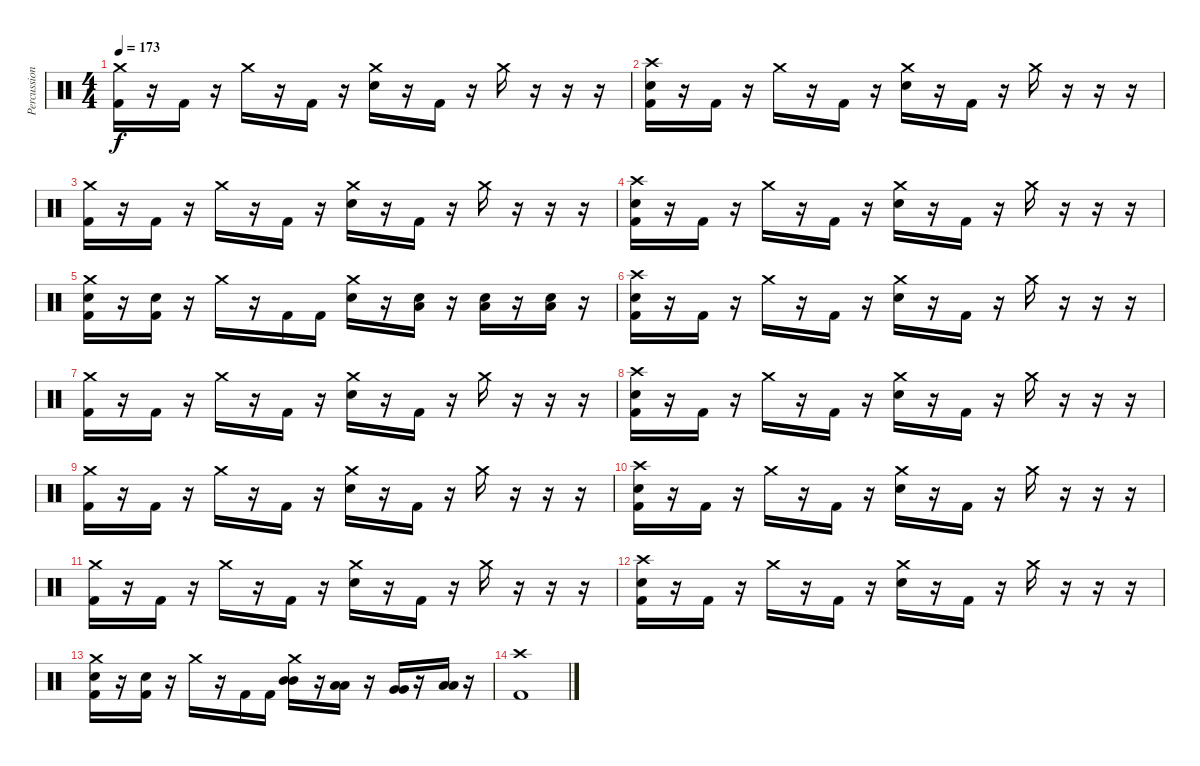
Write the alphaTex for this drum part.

\track ("Percussion" "Percussion") {instrument percussion}
\staff {score}
\articulation defaults
\ts (4 4)
\tempo 173
\clef neutral
\ks c
("Crash medium (hit)" "Kick (hit) 2").16{dy f} r.16 "Kick (hit) 2".16 r.16 "Crash medium (hit)".16 r.16 "Kick (hit) 2".16 r.16 ("Crash medium (hit)" "Electric Snare (hit)").16 r.16 "Kick (hit) 2".16 r.16 "Crash medium (hit)".16 r.16 r.16 r.16 |
("Crash high (hit)" "Electric Snare (hit)" "Kick (hit) 2").16 r.16 "Kick (hit) 2".16 r.16 "Crash medium (hit)".16 r.16 "Kick (hit) 2".16 r.16 ("Crash medium (hit)" "Electric Snare (hit)").16 r.16 "Kick (hit) 2".16 r.16 "Crash medium (hit)".16 r.16 r.16 r.16 |
("Crash medium (hit)" "Kick (hit) 2").16 r.16 "Kick (hit) 2".16 r.16 "Crash medium (hit)".16 r.16 "Kick (hit) 2".16 r.16 ("Crash medium (hit)" "Electric Snare (hit)").16 r.16 "Kick (hit) 2".16 r.16 "Crash medium (hit)".16 r.16 r.16 r.16 |
("Crash high (hit)" "Electric Snare (hit)" "Kick (hit) 2").16 r.16 "Kick (hit) 2".16 r.16 "Crash medium (hit)".16 r.16 "Kick (hit) 2".16 r.16 ("Crash medium (hit)" "Electric Snare (hit)").16 r.16 "Kick (hit) 2".16 r.16 "Crash medium (hit)".16 r.16 r.16 r.16 |
("Crash medium (hit)" "Electric Snare (hit)" "Kick (hit) 2").16 r.16 ("Electric Snare (hit)" "Kick (hit) 2").16 r.16 "Crash medium (hit)".16 r.16 "Kick (hit) 2".16 "Kick (hit) 2".16 ("Crash medium (hit)" "Electric Snare (hit)").16 r.16 ("Electric Snare (hit)" "Low Floor Tom (hit)").16 r.16 ("Electric Snare (hit)" "Low Floor Tom (hit)").16 r.16 ("Electric Snare (hit)" "Low Floor Tom (hit)").16 r.16 |
("Crash high (hit)" "Electric Snare (hit)" "Kick (hit) 2").16 r.16 "Kick (hit) 2".16 r.16 "Crash medium (hit)".16 r.16 "Kick (hit) 2".16 r.16 ("Crash medium (hit)" "Electric Snare (hit)").16 r.16 "Kick (hit) 2".16 r.16 "Crash medium (hit)".16 r.16 r.16 r.16 |
("Crash medium (hit)" "Kick (hit) 2").16 r.16 "Kick (hit) 2".16 r.16 "Crash medium (hit)".16 r.16 "Kick (hit) 2".16 r.16 ("Crash medium (hit)" "Electric Snare (hit)").16 r.16 "Kick (hit) 2".16 r.16 "Crash medium (hit)".16 r.16 r.16 r.16 |
("Crash high (hit)" "Electric Snare (hit)" "Kick (hit) 2").16 r.16 "Kick (hit) 2".16 r.16 "Crash medium (hit)".16 r.16 "Kick (hit) 2".16 r.16 ("Crash medium (hit)" "Electric Snare (hit)").16 r.16 "Kick (hit) 2".16 r.16 "Crash medium (hit)".16 r.16 r.16 r.16 |
("Crash medium (hit)" "Kick (hit) 2").16 r.16 "Kick (hit) 2".16 r.16 "Crash medium (hit)".16 r.16 "Kick (hit) 2".16 r.16 ("Crash medium (hit)" "Electric Snare (hit)").16 r.16 "Kick (hit) 2".16 r.16 "Crash medium (hit)".16 r.16 r.16 r.16 |
("Crash high (hit)" "Electric Snare (hit)" "Kick (hit) 2").16 r.16 "Kick (hit) 2".16 r.16 "Crash medium (hit)".16 r.16 "Kick (hit) 2".16 r.16 ("Crash medium (hit)" "Electric Snare (hit)").16 r.16 "Kick (hit) 2".16 r.16 "Crash medium (hit)".16 r.16 r.16 r.16 |
("Crash medium (hit)" "Kick (hit) 2").16 r.16 "Kick (hit) 2".16 r.16 "Crash medium (hit)".16 r.16 "Kick (hit) 2".16 r.16 ("Crash medium (hit)" "Electric Snare (hit)").16 r.16 "Kick (hit) 2".16 r.16 "Crash medium (hit)".16 r.16 r.16 r.16 |
("Crash high (hit)" "Electric Snare (hit)" "Kick (hit) 2").16 r.16 "Kick (hit) 2".16 r.16 "Crash medium (hit)".16 r.16 "Kick (hit) 2".16 r.16 ("Crash medium (hit)" "Electric Snare (hit)").16 r.16 "Kick (hit) 2".16 r.16 "Crash medium (hit)".16 r.16 r.16 r.16 |
("Crash medium (hit)" "Electric Snare (hit)" "Kick (hit) 2").16 r.16 ("Electric Snare (hit)" "Kick (hit) 2").16 r.16 "Crash medium (hit)".16 r.16 "Kick (hit) 2".16 "Kick (hit) 2".16 ("Crash medium (hit)" "Mid Tom (hit)" "Mid Tom (hit)").16 r.16 ("Low Tom (hit)" "Low Tom (hit)").16 r.16 ("Very Low Tom (hit)" "Very Low Tom (hit)").16 r.16 ("Low Floor Tom (hit)" "Low Floor Tom (hit)").16 r.16 |
("Crash high (hit)" "Kick (hit) 2").1
